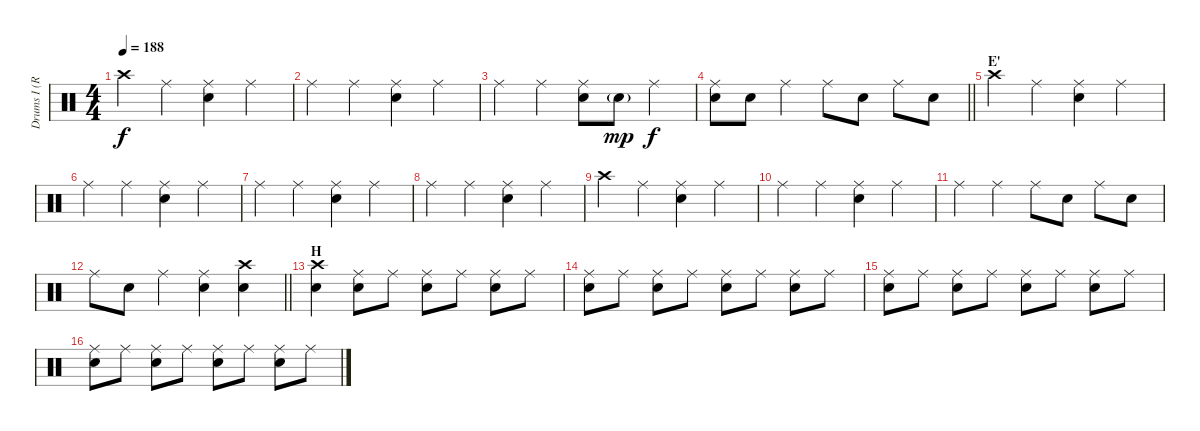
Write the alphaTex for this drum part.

\track ("Drums I (Ruka)" "Drums I (R") {instrument percussion}
\staff {score}
\articulation defaults
\ts (4 4)
\tempo 188
\clef neutral
\ks c "Crash high (hit)".4{dy f} "Ride (middle)".4
("Ride (middle)" "Snare (hit) 2").4 "Ride (middle)".4 |
"Ride (middle)".4 "Ride (middle)".4 ("Ride (middle)" "Snare (hit) 2").4 "Ride (middle)".4 |
"Ride (middle)".4 "Ride (middle)".4 ("Ride (middle)" "Snare (hit) 2").8 "Snare (hit) 2"{g}.8{dy mp} "Ride (middle)".4{dy f} |
\barLineRight lightlight
("Ride (middle)" "Snare (hit) 2").8 "Snare (hit) 2".8 "Ride (middle)".4 "Ride (middle)".8 "Snare (hit) 2".8 "Ride (middle)".8 "Snare (hit) 2".8 |
\section ("" "E'")
"Crash high (hit)".4 "Ride (middle)".4 ("Ride (middle)" "Snare (hit) 2").4 "Ride (middle)".4 |
"Ride (middle)".4 "Ride (middle)".4 ("Ride (middle)" "Snare (hit) 2").4 "Ride (middle)".4 |
"Ride (middle)".4 "Ride (middle)".4 ("Ride (middle)" "Snare (hit) 2").4 "Ride (middle)".4 |
"Ride (middle)".4 "Ride (middle)".4 ("Ride (middle)" "Snare (hit) 2").4 "Ride (middle)".4 |
"Crash high (hit)".4 "Ride (middle)".4 ("Ride (middle)" "Snare (hit) 2").4 "Ride (middle)".4 |
"Ride (middle)".4 "Ride (middle)".4 ("Ride (middle)" "Snare (hit) 2").4 "Ride (middle)".4 |
"Ride (middle)".4 "Ride (middle)".4 "Ride (middle)".8 "Snare (hit) 2".8 "Ride (middle)".8 "Snare (hit) 2".8 |
\barLineRight lightlight "Ride (middle)".8 "Snare (hit) 2".8 "Ride (middle)".4
("Ride (middle)" "Snare (hit) 2").4 ("Crash high (hit)" "Snare (hit) 2").4 |
\section ("" "H")
("Crash high (hit)" "Snare (hit) 2").4 ("Ride (middle)" "Snare (hit) 2").8 "Ride (middle)".8 ("Ride (middle)" "Snare (hit) 2").8 "Ride (middle)".8 ("Ride (middle)" "Snare (hit) 2").8 "Ride (middle)".8 |
("Ride (middle)" "Snare (hit) 2").8 "Ride (middle)".8 ("Ride (middle)" "Snare (hit) 2").8 "Ride (middle)".8 ("Ride (middle)" "Snare (hit) 2").8 "Ride (middle)".8 ("Ride (middle)" "Snare (hit) 2").8 "Ride (middle)".8 |
("Ride (middle)" "Snare (hit) 2").8 "Ride (middle)".8 ("Ride (middle)" "Snare (hit) 2").8 "Ride (middle)".8 ("Ride (middle)" "Snare (hit) 2").8 "Ride (middle)".8 ("Ride (middle)" "Snare (hit) 2").8 "Ride (middle)".8 |
("Ride (middle)" "Snare (hit) 2").8 "Ride (middle)".8 ("Ride (middle)" "Snare (hit) 2").8 "Ride (middle)".8 ("Ride (middle)" "Snare (hit) 2").8 "Ride (middle)".8 ("Ride (middle)" "Snare (hit) 2").8 "Ride (middle)".8
